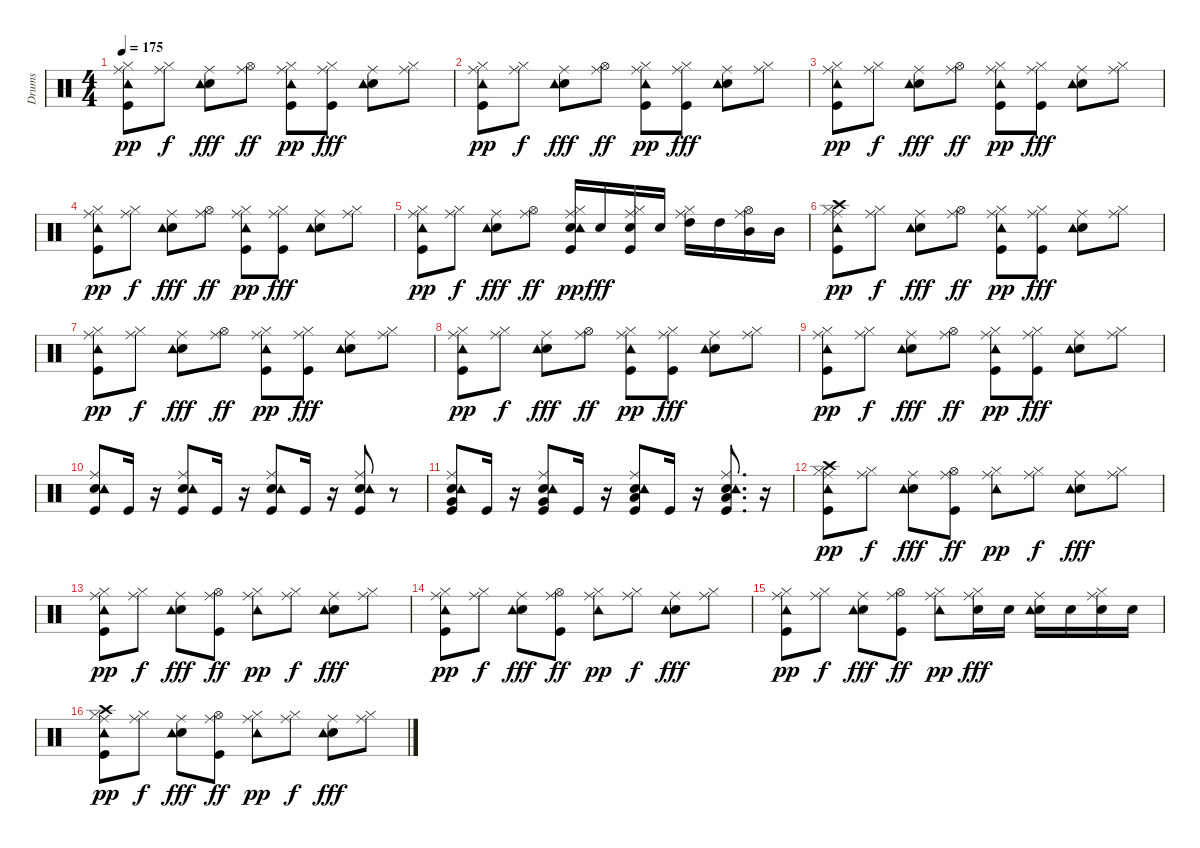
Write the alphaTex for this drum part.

\track ("Drums" "Drums") {instrument percussion}
\staff {score}
\articulation defaults
\ts (4 4)
\tempo 175
\clef neutral
\ks c
("Kick (hit)" "Hi-Hat (closed)" "Ride (middle)" "Tambourine (hit)").8{dy pp} ("Hi-Hat (closed)" "Ride (middle)").8{dy f} ("Snare (hit) 2" "Ride (middle)" "Tambourine (hit)").8{dy fff} ("Hi-Hat (open)" "Ride (middle)").8{dy ff} ("Kick (hit)" "Hi-Hat (closed)" "Ride (middle)" "Tambourine (hit)").8{dy pp} ("Kick (hit)" "Hi-Hat (closed)" "Ride (middle)").8{dy fff} ("Snare (hit) 2" "Ride (middle)" "Tambourine (hit)").8 ("Hi-Hat (closed)" "Ride (middle)").8 |
("Kick (hit)" "Hi-Hat (closed)" "Ride (middle)" "Tambourine (hit)").8{dy pp} ("Hi-Hat (closed)" "Ride (middle)").8{dy f} ("Snare (hit) 2" "Ride (middle)" "Tambourine (hit)").8{dy fff} ("Hi-Hat (open)" "Ride (middle)").8{dy ff} ("Kick (hit)" "Hi-Hat (closed)" "Ride (middle)" "Tambourine (hit)").8{dy pp} ("Kick (hit)" "Hi-Hat (closed)" "Ride (middle)").8{dy fff} ("Snare (hit) 2" "Ride (middle)" "Tambourine (hit)").8 ("Hi-Hat (closed)" "Ride (middle)").8 |
("Kick (hit)" "Hi-Hat (closed)" "Ride (middle)" "Tambourine (hit)").8{dy pp} ("Hi-Hat (closed)" "Ride (middle)").8{dy f} ("Snare (hit) 2" "Ride (middle)" "Tambourine (hit)").8{dy fff} ("Hi-Hat (open)" "Ride (middle)").8{dy ff} ("Kick (hit)" "Hi-Hat (closed)" "Ride (middle)" "Tambourine (hit)").8{dy pp} ("Kick (hit)" "Hi-Hat (closed)" "Ride (middle)").8{dy fff} ("Snare (hit) 2" "Ride (middle)" "Tambourine (hit)").8 ("Hi-Hat (closed)" "Ride (middle)").8 |
("Kick (hit)" "Hi-Hat (closed)" "Ride (middle)" "Tambourine (hit)").8{dy pp} ("Hi-Hat (closed)" "Ride (middle)").8{dy f} ("Snare (hit) 2" "Ride (middle)" "Tambourine (hit)").8{dy fff} ("Hi-Hat (open)" "Ride (middle)").8{dy ff} ("Kick (hit)" "Hi-Hat (closed)" "Ride (middle)" "Tambourine (hit)").8{dy pp} ("Kick (hit)" "Hi-Hat (closed)" "Ride (middle)").8{dy fff} ("Snare (hit) 2" "Ride (middle)" "Tambourine (hit)").8 ("Hi-Hat (closed)" "Ride (middle)").8 |
("Kick (hit)" "Hi-Hat (closed)" "Ride (middle)" "Tambourine (hit)").8{dy pp} ("Hi-Hat (closed)" "Ride (middle)").8{dy f} ("Snare (hit) 2" "Ride (middle)" "Tambourine (hit)").8{dy fff} ("Hi-Hat (open)" "Ride (middle)").8{dy ff} ("Kick (hit)" "Snare (hit) 2" "Hi-Hat (closed)" "Ride (middle)" "Tambourine (hit)").16{dy pp} "Snare (hit) 2".16{dy fff} ("Kick (hit)" "Snare (hit) 2" "Hi-Hat (closed)" "Ride (middle)").16 "Snare (hit) 2".16 ("Hi-Hat (closed)" "High Tom (hit)" "Ride (middle)").16 "High Tom (hit)".16 ("Hi-Hat (open)" "Mid Tom (hit)" "Ride (middle)").16 "Mid Tom (hit)".16 |
("Kick (hit)" "Hi-Hat (closed)" "Crash high (hit)" "Ride (middle)" "Tambourine (hit)").8{dy pp} ("Hi-Hat (closed)" "Ride (middle)").8{dy f} ("Snare (hit) 2" "Ride (middle)" "Tambourine (hit)").8{dy fff} ("Hi-Hat (open)" "Ride (middle)").8{dy ff} ("Kick (hit)" "Hi-Hat (closed)" "Ride (middle)" "Tambourine (hit)").8{dy pp} ("Kick (hit)" "Hi-Hat (closed)" "Ride (middle)").8{dy fff} ("Snare (hit) 2" "Ride (middle)" "Tambourine (hit)").8 ("Hi-Hat (closed)" "Ride (middle)").8 |
("Kick (hit)" "Hi-Hat (closed)" "Ride (middle)" "Tambourine (hit)").8{dy pp} ("Hi-Hat (closed)" "Ride (middle)").8{dy f} ("Snare (hit) 2" "Ride (middle)" "Tambourine (hit)").8{dy fff} ("Hi-Hat (open)" "Ride (middle)").8{dy ff} ("Kick (hit)" "Hi-Hat (closed)" "Ride (middle)" "Tambourine (hit)").8{dy pp} ("Kick (hit)" "Hi-Hat (closed)" "Ride (middle)").8{dy fff} ("Snare (hit) 2" "Ride (middle)" "Tambourine (hit)").8 ("Hi-Hat (closed)" "Ride (middle)").8 |
("Kick (hit)" "Hi-Hat (closed)" "Ride (middle)" "Tambourine (hit)").8{dy pp} ("Hi-Hat (closed)" "Ride (middle)").8{dy f} ("Snare (hit) 2" "Ride (middle)" "Tambourine (hit)").8{dy fff} ("Hi-Hat (open)" "Ride (middle)").8{dy ff} ("Kick (hit)" "Hi-Hat (closed)" "Ride (middle)" "Tambourine (hit)").8{dy pp} ("Kick (hit)" "Hi-Hat (closed)" "Ride (middle)").8{dy fff} ("Snare (hit) 2" "Ride (middle)" "Tambourine (hit)").8 ("Hi-Hat (closed)" "Ride (middle)").8 |
("Kick (hit)" "Hi-Hat (closed)" "Ride (middle)" "Tambourine (hit)").8{dy pp} ("Hi-Hat (closed)" "Ride (middle)").8{dy f} ("Snare (hit) 2" "Ride (middle)" "Tambourine (hit)").8{dy fff} ("Hi-Hat (open)" "Ride (middle)").8{dy ff} ("Kick (hit)" "Hi-Hat (closed)" "Ride (middle)" "Tambourine (hit)").8{dy pp} ("Kick (hit)" "Hi-Hat (closed)" "Ride (middle)").8{dy fff} ("Snare (hit) 2" "Ride (middle)" "Tambourine (hit)").8 ("Hi-Hat (closed)" "Ride (middle)").8 |
("Kick (hit)" "Snare (hit) 2" "Ride (middle)" "Tambourine (hit)").8 "Kick (hit)".16 r.16 ("Kick (hit)" "Snare (hit) 2" "Ride (middle)" "Tambourine (hit)").8 "Kick (hit)".16 r.16 ("Kick (hit)" "Snare (hit) 2" "Ride (middle)" "Tambourine (hit)").8 "Kick (hit)".16 r.16 ("Kick (hit)" "Snare (hit) 2" "Ride (middle)" "Tambourine (hit)").8 r.8 |
("Kick (hit)" "Snare (hit) 2" "Very Low Tom (hit)" "Ride (middle)" "Tambourine (hit)").8 "Kick (hit)".16 r.16 ("Kick (hit)" "Snare (hit) 2" "Very Low Tom (hit)" "Ride (middle)" "Tambourine (hit)").8 "Kick (hit)".16 r.16 ("Kick (hit)" "Snare (hit) 2" "Low Floor Tom (hit)" "Ride (middle)" "Tambourine (hit)").8 "Kick (hit)".16 r.16 ("Kick (hit)" "Snare (hit) 2" "Low Floor Tom (hit)" "Ride (middle)" "Tambourine (hit)").8{d} r.16 |
("Kick (hit)" "Hi-Hat (closed)" "Crash high (hit)" "Ride (middle)" "Tambourine (hit)").8{dy pp} ("Hi-Hat (closed)" "Ride (middle)").8{dy f} ("Snare (hit) 2" "Ride (middle)" "Tambourine (hit)").8{dy fff} ("Kick (hit)" "Hi-Hat (open)" "Ride (middle)").8{dy ff} ("Hi-Hat (closed)" "Ride (middle)" "Tambourine (hit)").8{dy pp} ("Hi-Hat (closed)" "Ride (middle)").8{dy f} ("Snare (hit) 2" "Ride (middle)" "Tambourine (hit)").8{dy fff} ("Hi-Hat (closed)" "Ride (middle)").8 |
("Kick (hit)" "Hi-Hat (closed)" "Ride (middle)" "Tambourine (hit)").8{dy pp} ("Hi-Hat (closed)" "Ride (middle)").8{dy f} ("Snare (hit) 2" "Ride (middle)" "Tambourine (hit)").8{dy fff} ("Kick (hit)" "Hi-Hat (open)" "Ride (middle)").8{dy ff} ("Hi-Hat (closed)" "Ride (middle)" "Tambourine (hit)").8{dy pp} ("Hi-Hat (closed)" "Ride (middle)").8{dy f} ("Snare (hit) 2" "Ride (middle)" "Tambourine (hit)").8{dy fff} ("Hi-Hat (closed)" "Ride (middle)").8 |
("Kick (hit)" "Hi-Hat (closed)" "Ride (middle)" "Tambourine (hit)").8{dy pp} ("Hi-Hat (closed)" "Ride (middle)").8{dy f} ("Snare (hit) 2" "Ride (middle)" "Tambourine (hit)").8{dy fff} ("Kick (hit)" "Hi-Hat (open)" "Ride (middle)").8{dy ff} ("Hi-Hat (closed)" "Ride (middle)" "Tambourine (hit)").8{dy pp} ("Hi-Hat (closed)" "Ride (middle)").8{dy f} ("Snare (hit) 2" "Ride (middle)" "Tambourine (hit)").8{dy fff} ("Hi-Hat (closed)" "Ride (middle)").8 |
("Kick (hit)" "Hi-Hat (closed)" "Ride (middle)" "Tambourine (hit)").8{dy pp} ("Hi-Hat (closed)" "Ride (middle)").8{dy f} ("Snare (hit) 2" "Ride (middle)" "Tambourine (hit)").8{dy fff} ("Kick (hit)" "Hi-Hat (open)" "Ride (middle)").8{dy ff} ("Hi-Hat (closed)" "Ride (middle)" "Tambourine (hit)").8{dy pp} ("Snare (hit) 2" "Hi-Hat (closed)" "Ride (middle)").16{dy fff} "Snare (hit) 2".16 ("Snare (hit) 2" "Ride (middle)" "Tambourine (hit)").16 "Snare (hit) 2".16 ("Snare (hit) 2" "Hi-Hat (closed)" "Ride (middle)").16 "Snare (hit) 2".16 |
("Kick (hit)" "Hi-Hat (closed)" "Crash high (hit)" "Ride (middle)" "Tambourine (hit)").8{dy pp} ("Hi-Hat (closed)" "Ride (middle)").8{dy f} ("Snare (hit) 2" "Ride (middle)" "Tambourine (hit)").8{dy fff} ("Kick (hit)" "Hi-Hat (open)" "Ride (middle)").8{dy ff} ("Hi-Hat (closed)" "Ride (middle)" "Tambourine (hit)").8{dy pp} ("Hi-Hat (closed)" "Ride (middle)").8{dy f} ("Snare (hit) 2" "Ride (middle)" "Tambourine (hit)").8{dy fff} ("Hi-Hat (closed)" "Ride (middle)").8
